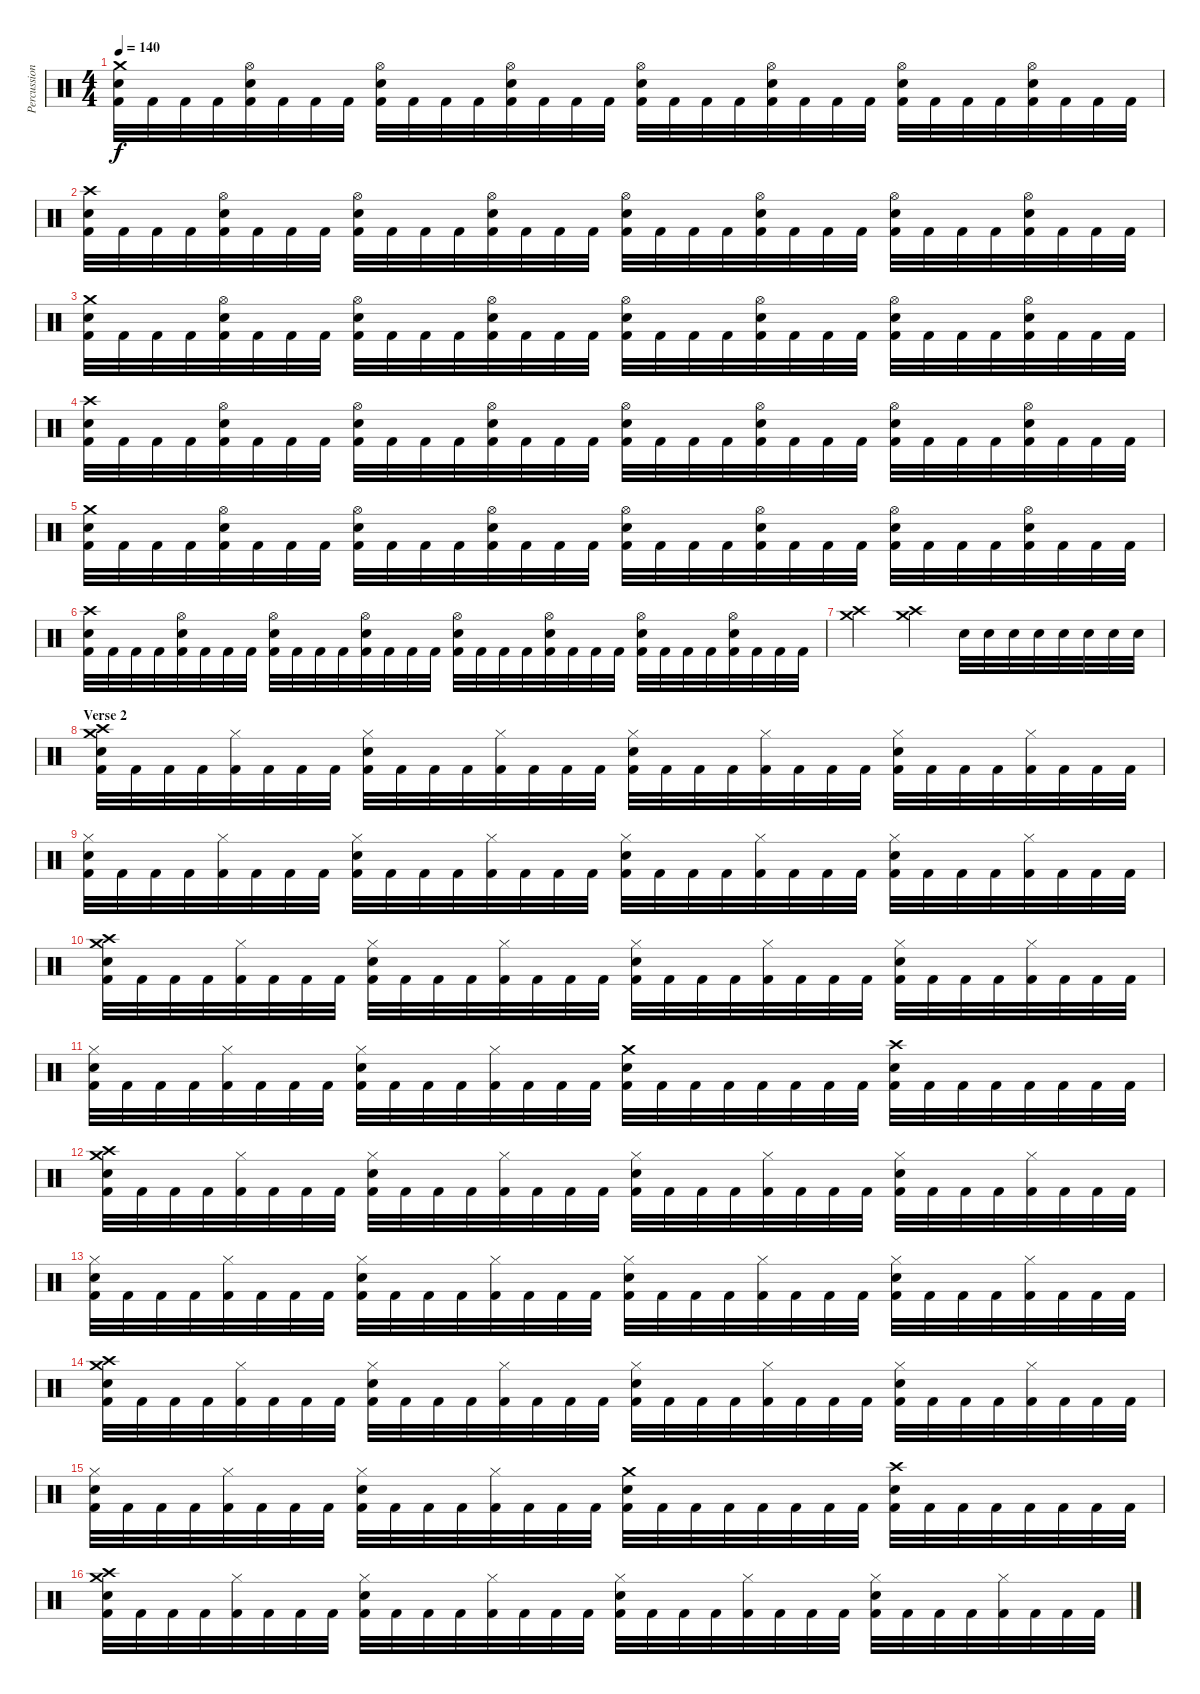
\track ("Percussion" "Percussion") {instrument percussion}
\staff {score}
\articulation defaults
\ts (4 4)
\tempo 140
\clef neutral
\ks c
("Crash medium (hit)" "Electric Snare (hit)" "Kick (hit) 2").32{dy f} "Kick (hit) 2".32 "Kick (hit) 2".32 "Kick (hit) 2".32 ("Hi-Hat (open)" "Electric Snare (hit)" "Kick (hit) 2").32 "Kick (hit) 2".32 "Kick (hit) 2".32 "Kick (hit) 2".32 ("Hi-Hat (open)" "Electric Snare (hit)" "Kick (hit) 2").32 "Kick (hit) 2".32 "Kick (hit) 2".32 "Kick (hit) 2".32 ("Hi-Hat (open)" "Electric Snare (hit)" "Kick (hit) 2").32 "Kick (hit) 2".32 "Kick (hit) 2".32 "Kick (hit) 2".32 ("Hi-Hat (open)" "Electric Snare (hit)" "Kick (hit) 2").32 "Kick (hit) 2".32 "Kick (hit) 2".32 "Kick (hit) 2".32 ("Hi-Hat (open)" "Electric Snare (hit)" "Kick (hit) 2").32 "Kick (hit) 2".32 "Kick (hit) 2".32 "Kick (hit) 2".32 ("Hi-Hat (open)" "Electric Snare (hit)" "Kick (hit) 2").32 "Kick (hit) 2".32 "Kick (hit) 2".32 "Kick (hit) 2".32 ("Hi-Hat (open)" "Electric Snare (hit)" "Kick (hit) 2").32 "Kick (hit) 2".32 "Kick (hit) 2".32 "Kick (hit) 2".32 |
("Crash high (hit)" "Electric Snare (hit)" "Kick (hit) 2").32 "Kick (hit) 2".32 "Kick (hit) 2".32 "Kick (hit) 2".32 ("Hi-Hat (open)" "Electric Snare (hit)" "Kick (hit) 2").32 "Kick (hit) 2".32 "Kick (hit) 2".32 "Kick (hit) 2".32 ("Hi-Hat (open)" "Electric Snare (hit)" "Kick (hit) 2").32 "Kick (hit) 2".32 "Kick (hit) 2".32 "Kick (hit) 2".32 ("Hi-Hat (open)" "Electric Snare (hit)" "Kick (hit) 2").32 "Kick (hit) 2".32 "Kick (hit) 2".32 "Kick (hit) 2".32 ("Hi-Hat (open)" "Electric Snare (hit)" "Kick (hit) 2").32 "Kick (hit) 2".32 "Kick (hit) 2".32 "Kick (hit) 2".32 ("Hi-Hat (open)" "Electric Snare (hit)" "Kick (hit) 2").32 "Kick (hit) 2".32 "Kick (hit) 2".32 "Kick (hit) 2".32 ("Hi-Hat (open)" "Electric Snare (hit)" "Kick (hit) 2").32 "Kick (hit) 2".32 "Kick (hit) 2".32 "Kick (hit) 2".32 ("Hi-Hat (open)" "Electric Snare (hit)" "Kick (hit) 2").32 "Kick (hit) 2".32 "Kick (hit) 2".32 "Kick (hit) 2".32 |
("Crash medium (hit)" "Electric Snare (hit)" "Kick (hit) 2").32 "Kick (hit) 2".32 "Kick (hit) 2".32 "Kick (hit) 2".32 ("Hi-Hat (open)" "Electric Snare (hit)" "Kick (hit) 2").32 "Kick (hit) 2".32 "Kick (hit) 2".32 "Kick (hit) 2".32 ("Hi-Hat (open)" "Electric Snare (hit)" "Kick (hit) 2").32 "Kick (hit) 2".32 "Kick (hit) 2".32 "Kick (hit) 2".32 ("Hi-Hat (open)" "Electric Snare (hit)" "Kick (hit) 2").32 "Kick (hit) 2".32 "Kick (hit) 2".32 "Kick (hit) 2".32 ("Hi-Hat (open)" "Electric Snare (hit)" "Kick (hit) 2").32 "Kick (hit) 2".32 "Kick (hit) 2".32 "Kick (hit) 2".32 ("Hi-Hat (open)" "Electric Snare (hit)" "Kick (hit) 2").32 "Kick (hit) 2".32 "Kick (hit) 2".32 "Kick (hit) 2".32 ("Hi-Hat (open)" "Electric Snare (hit)" "Kick (hit) 2").32 "Kick (hit) 2".32 "Kick (hit) 2".32 "Kick (hit) 2".32 ("Hi-Hat (open)" "Electric Snare (hit)" "Kick (hit) 2").32 "Kick (hit) 2".32 "Kick (hit) 2".32 "Kick (hit) 2".32 |
("Crash high (hit)" "Electric Snare (hit)" "Kick (hit) 2").32 "Kick (hit) 2".32 "Kick (hit) 2".32 "Kick (hit) 2".32 ("Hi-Hat (open)" "Electric Snare (hit)" "Kick (hit) 2").32 "Kick (hit) 2".32 "Kick (hit) 2".32 "Kick (hit) 2".32 ("Hi-Hat (open)" "Electric Snare (hit)" "Kick (hit) 2").32 "Kick (hit) 2".32 "Kick (hit) 2".32 "Kick (hit) 2".32 ("Hi-Hat (open)" "Electric Snare (hit)" "Kick (hit) 2").32 "Kick (hit) 2".32 "Kick (hit) 2".32 "Kick (hit) 2".32 ("Hi-Hat (open)" "Electric Snare (hit)" "Kick (hit) 2").32 "Kick (hit) 2".32 "Kick (hit) 2".32 "Kick (hit) 2".32 ("Hi-Hat (open)" "Electric Snare (hit)" "Kick (hit) 2").32 "Kick (hit) 2".32 "Kick (hit) 2".32 "Kick (hit) 2".32 ("Hi-Hat (open)" "Electric Snare (hit)" "Kick (hit) 2").32 "Kick (hit) 2".32 "Kick (hit) 2".32 "Kick (hit) 2".32 ("Hi-Hat (open)" "Electric Snare (hit)" "Kick (hit) 2").32 "Kick (hit) 2".32 "Kick (hit) 2".32 "Kick (hit) 2".32 |
("Crash medium (hit)" "Electric Snare (hit)" "Kick (hit) 2").32 "Kick (hit) 2".32 "Kick (hit) 2".32 "Kick (hit) 2".32 ("Hi-Hat (open)" "Electric Snare (hit)" "Kick (hit) 2").32 "Kick (hit) 2".32 "Kick (hit) 2".32 "Kick (hit) 2".32 ("Hi-Hat (open)" "Electric Snare (hit)" "Kick (hit) 2").32 "Kick (hit) 2".32 "Kick (hit) 2".32 "Kick (hit) 2".32 ("Hi-Hat (open)" "Electric Snare (hit)" "Kick (hit) 2").32 "Kick (hit) 2".32 "Kick (hit) 2".32 "Kick (hit) 2".32 ("Hi-Hat (open)" "Electric Snare (hit)" "Kick (hit) 2").32 "Kick (hit) 2".32 "Kick (hit) 2".32 "Kick (hit) 2".32 ("Hi-Hat (open)" "Electric Snare (hit)" "Kick (hit) 2").32 "Kick (hit) 2".32 "Kick (hit) 2".32 "Kick (hit) 2".32 ("Hi-Hat (open)" "Electric Snare (hit)" "Kick (hit) 2").32 "Kick (hit) 2".32 "Kick (hit) 2".32 "Kick (hit) 2".32 ("Hi-Hat (open)" "Electric Snare (hit)" "Kick (hit) 2").32 "Kick (hit) 2".32 "Kick (hit) 2".32 "Kick (hit) 2".32 |
("Crash high (hit)" "Electric Snare (hit)" "Kick (hit) 2").32 "Kick (hit) 2".32 "Kick (hit) 2".32 "Kick (hit) 2".32 ("Hi-Hat (open)" "Electric Snare (hit)" "Kick (hit) 2").32 "Kick (hit) 2".32 "Kick (hit) 2".32 "Kick (hit) 2".32 ("Hi-Hat (open)" "Electric Snare (hit)" "Kick (hit) 2").32 "Kick (hit) 2".32 "Kick (hit) 2".32 "Kick (hit) 2".32 ("Hi-Hat (open)" "Electric Snare (hit)" "Kick (hit) 2").32 "Kick (hit) 2".32 "Kick (hit) 2".32 "Kick (hit) 2".32 ("Hi-Hat (open)" "Electric Snare (hit)" "Kick (hit) 2").32 "Kick (hit) 2".32 "Kick (hit) 2".32 "Kick (hit) 2".32 ("Hi-Hat (open)" "Electric Snare (hit)" "Kick (hit) 2").32 "Kick (hit) 2".32 "Kick (hit) 2".32 "Kick (hit) 2".32 ("Hi-Hat (open)" "Electric Snare (hit)" "Kick (hit) 2").32 "Kick (hit) 2".32 "Kick (hit) 2".32 "Kick (hit) 2".32 ("Hi-Hat (open)" "Electric Snare (hit)" "Kick (hit) 2").32 "Kick (hit) 2".32 "Kick (hit) 2".32 "Kick (hit) 2".32 |
("Crash medium (hit)" "Crash high (hit)").2 ("Crash medium (hit)" "Crash high (hit)").4 "Electric Snare (hit)".32 "Electric Snare (hit)".32 "Electric Snare (hit)".32 "Electric Snare (hit)".32 "Electric Snare (hit)".32 "Electric Snare (hit)".32 "Electric Snare (hit)".32 "Electric Snare (hit)".32 |
\section ("" "Verse 2")
("Crash medium (hit)" "Crash high (hit)" "Electric Snare (hit)" "Kick (hit) 2").32 "Kick (hit) 2".32 "Kick (hit) 2".32 "Kick (hit) 2".32 ("Hi-Hat (closed)" "Kick (hit) 2").32 "Kick (hit) 2".32 "Kick (hit) 2".32 "Kick (hit) 2".32 ("Hi-Hat (closed)" "Electric Snare (hit)" "Kick (hit) 2").32 "Kick (hit) 2".32 "Kick (hit) 2".32 "Kick (hit) 2".32 ("Hi-Hat (closed)" "Kick (hit) 2").32 "Kick (hit) 2".32 "Kick (hit) 2".32 "Kick (hit) 2".32 ("Hi-Hat (closed)" "Electric Snare (hit)" "Kick (hit) 2").32 "Kick (hit) 2".32 "Kick (hit) 2".32 "Kick (hit) 2".32 ("Hi-Hat (closed)" "Kick (hit) 2").32 "Kick (hit) 2".32 "Kick (hit) 2".32 "Kick (hit) 2".32 ("Hi-Hat (closed)" "Electric Snare (hit)" "Kick (hit) 2").32 "Kick (hit) 2".32 "Kick (hit) 2".32 "Kick (hit) 2".32 ("Hi-Hat (closed)" "Kick (hit) 2").32 "Kick (hit) 2".32 "Kick (hit) 2".32 "Kick (hit) 2".32 |
("Hi-Hat (closed)" "Electric Snare (hit)" "Kick (hit) 2").32 "Kick (hit) 2".32 "Kick (hit) 2".32 "Kick (hit) 2".32 ("Hi-Hat (closed)" "Kick (hit) 2").32 "Kick (hit) 2".32 "Kick (hit) 2".32 "Kick (hit) 2".32 ("Hi-Hat (closed)" "Electric Snare (hit)" "Kick (hit) 2").32 "Kick (hit) 2".32 "Kick (hit) 2".32 "Kick (hit) 2".32 ("Hi-Hat (closed)" "Kick (hit) 2").32 "Kick (hit) 2".32 "Kick (hit) 2".32 "Kick (hit) 2".32 ("Hi-Hat (closed)" "Electric Snare (hit)" "Kick (hit) 2").32 "Kick (hit) 2".32 "Kick (hit) 2".32 "Kick (hit) 2".32 ("Hi-Hat (closed)" "Kick (hit) 2").32 "Kick (hit) 2".32 "Kick (hit) 2".32 "Kick (hit) 2".32 ("Hi-Hat (closed)" "Electric Snare (hit)" "Kick (hit) 2").32 "Kick (hit) 2".32 "Kick (hit) 2".32 "Kick (hit) 2".32 ("Hi-Hat (closed)" "Kick (hit) 2").32 "Kick (hit) 2".32 "Kick (hit) 2".32 "Kick (hit) 2".32 |
("Crash medium (hit)" "Crash high (hit)" "Electric Snare (hit)" "Kick (hit) 2").32 "Kick (hit) 2".32 "Kick (hit) 2".32 "Kick (hit) 2".32 ("Hi-Hat (closed)" "Kick (hit) 2").32 "Kick (hit) 2".32 "Kick (hit) 2".32 "Kick (hit) 2".32 ("Hi-Hat (closed)" "Electric Snare (hit)" "Kick (hit) 2").32 "Kick (hit) 2".32 "Kick (hit) 2".32 "Kick (hit) 2".32 ("Hi-Hat (closed)" "Kick (hit) 2").32 "Kick (hit) 2".32 "Kick (hit) 2".32 "Kick (hit) 2".32 ("Hi-Hat (closed)" "Electric Snare (hit)" "Kick (hit) 2").32 "Kick (hit) 2".32 "Kick (hit) 2".32 "Kick (hit) 2".32 ("Hi-Hat (closed)" "Kick (hit) 2").32 "Kick (hit) 2".32 "Kick (hit) 2".32 "Kick (hit) 2".32 ("Hi-Hat (closed)" "Electric Snare (hit)" "Kick (hit) 2").32 "Kick (hit) 2".32 "Kick (hit) 2".32 "Kick (hit) 2".32 ("Hi-Hat (closed)" "Kick (hit) 2").32 "Kick (hit) 2".32 "Kick (hit) 2".32 "Kick (hit) 2".32 |
("Hi-Hat (closed)" "Electric Snare (hit)" "Kick (hit) 2").32 "Kick (hit) 2".32 "Kick (hit) 2".32 "Kick (hit) 2".32 ("Hi-Hat (closed)" "Kick (hit) 2").32 "Kick (hit) 2".32 "Kick (hit) 2".32 "Kick (hit) 2".32 ("Hi-Hat (closed)" "Electric Snare (hit)" "Kick (hit) 2").32 "Kick (hit) 2".32 "Kick (hit) 2".32 "Kick (hit) 2".32 ("Hi-Hat (closed)" "Kick (hit) 2").32 "Kick (hit) 2".32 "Kick (hit) 2".32 "Kick (hit) 2".32 ("Crash medium (hit)" "Electric Snare (hit)" "Kick (hit) 2").32 "Kick (hit) 2".32 "Kick (hit) 2".32 "Kick (hit) 2".32 "Kick (hit) 2".32 "Kick (hit) 2".32 "Kick (hit) 2".32 "Kick (hit) 2".32 ("Crash high (hit)" "Electric Snare (hit)" "Kick (hit) 2").32 "Kick (hit) 2".32 "Kick (hit) 2".32 "Kick (hit) 2".32 "Kick (hit) 2".32 "Kick (hit) 2".32 "Kick (hit) 2".32 "Kick (hit) 2".32 |
("Crash medium (hit)" "Crash high (hit)" "Electric Snare (hit)" "Kick (hit) 2").32 "Kick (hit) 2".32 "Kick (hit) 2".32 "Kick (hit) 2".32 ("Hi-Hat (closed)" "Kick (hit) 2").32 "Kick (hit) 2".32 "Kick (hit) 2".32 "Kick (hit) 2".32 ("Hi-Hat (closed)" "Electric Snare (hit)" "Kick (hit) 2").32 "Kick (hit) 2".32 "Kick (hit) 2".32 "Kick (hit) 2".32 ("Hi-Hat (closed)" "Kick (hit) 2").32 "Kick (hit) 2".32 "Kick (hit) 2".32 "Kick (hit) 2".32 ("Hi-Hat (closed)" "Electric Snare (hit)" "Kick (hit) 2").32 "Kick (hit) 2".32 "Kick (hit) 2".32 "Kick (hit) 2".32 ("Hi-Hat (closed)" "Kick (hit) 2").32 "Kick (hit) 2".32 "Kick (hit) 2".32 "Kick (hit) 2".32 ("Hi-Hat (closed)" "Electric Snare (hit)" "Kick (hit) 2").32 "Kick (hit) 2".32 "Kick (hit) 2".32 "Kick (hit) 2".32 ("Hi-Hat (closed)" "Kick (hit) 2").32 "Kick (hit) 2".32 "Kick (hit) 2".32 "Kick (hit) 2".32 |
("Hi-Hat (closed)" "Electric Snare (hit)" "Kick (hit) 2").32 "Kick (hit) 2".32 "Kick (hit) 2".32 "Kick (hit) 2".32 ("Hi-Hat (closed)" "Kick (hit) 2").32 "Kick (hit) 2".32 "Kick (hit) 2".32 "Kick (hit) 2".32 ("Hi-Hat (closed)" "Electric Snare (hit)" "Kick (hit) 2").32 "Kick (hit) 2".32 "Kick (hit) 2".32 "Kick (hit) 2".32 ("Hi-Hat (closed)" "Kick (hit) 2").32 "Kick (hit) 2".32 "Kick (hit) 2".32 "Kick (hit) 2".32 ("Hi-Hat (closed)" "Electric Snare (hit)" "Kick (hit) 2").32 "Kick (hit) 2".32 "Kick (hit) 2".32 "Kick (hit) 2".32 ("Hi-Hat (closed)" "Kick (hit) 2").32 "Kick (hit) 2".32 "Kick (hit) 2".32 "Kick (hit) 2".32 ("Hi-Hat (closed)" "Electric Snare (hit)" "Kick (hit) 2").32 "Kick (hit) 2".32 "Kick (hit) 2".32 "Kick (hit) 2".32 ("Hi-Hat (closed)" "Kick (hit) 2").32 "Kick (hit) 2".32 "Kick (hit) 2".32 "Kick (hit) 2".32 |
("Crash medium (hit)" "Crash high (hit)" "Electric Snare (hit)" "Kick (hit) 2").32 "Kick (hit) 2".32 "Kick (hit) 2".32 "Kick (hit) 2".32 ("Hi-Hat (closed)" "Kick (hit) 2").32 "Kick (hit) 2".32 "Kick (hit) 2".32 "Kick (hit) 2".32 ("Hi-Hat (closed)" "Electric Snare (hit)" "Kick (hit) 2").32 "Kick (hit) 2".32 "Kick (hit) 2".32 "Kick (hit) 2".32 ("Hi-Hat (closed)" "Kick (hit) 2").32 "Kick (hit) 2".32 "Kick (hit) 2".32 "Kick (hit) 2".32 ("Hi-Hat (closed)" "Electric Snare (hit)" "Kick (hit) 2").32 "Kick (hit) 2".32 "Kick (hit) 2".32 "Kick (hit) 2".32 ("Hi-Hat (closed)" "Kick (hit) 2").32 "Kick (hit) 2".32 "Kick (hit) 2".32 "Kick (hit) 2".32 ("Hi-Hat (closed)" "Electric Snare (hit)" "Kick (hit) 2").32 "Kick (hit) 2".32 "Kick (hit) 2".32 "Kick (hit) 2".32 ("Hi-Hat (closed)" "Kick (hit) 2").32 "Kick (hit) 2".32 "Kick (hit) 2".32 "Kick (hit) 2".32 |
("Hi-Hat (closed)" "Electric Snare (hit)" "Kick (hit) 2").32 "Kick (hit) 2".32 "Kick (hit) 2".32 "Kick (hit) 2".32 ("Hi-Hat (closed)" "Kick (hit) 2").32 "Kick (hit) 2".32 "Kick (hit) 2".32 "Kick (hit) 2".32 ("Hi-Hat (closed)" "Electric Snare (hit)" "Kick (hit) 2").32 "Kick (hit) 2".32 "Kick (hit) 2".32 "Kick (hit) 2".32 ("Hi-Hat (closed)" "Kick (hit) 2").32 "Kick (hit) 2".32 "Kick (hit) 2".32 "Kick (hit) 2".32 ("Crash medium (hit)" "Electric Snare (hit)" "Kick (hit) 2").32 "Kick (hit) 2".32 "Kick (hit) 2".32 "Kick (hit) 2".32 "Kick (hit) 2".32 "Kick (hit) 2".32 "Kick (hit) 2".32 "Kick (hit) 2".32 ("Crash high (hit)" "Electric Snare (hit)" "Kick (hit) 2").32 "Kick (hit) 2".32 "Kick (hit) 2".32 "Kick (hit) 2".32 "Kick (hit) 2".32 "Kick (hit) 2".32 "Kick (hit) 2".32 "Kick (hit) 2".32 |
("Crash medium (hit)" "Crash high (hit)" "Electric Snare (hit)" "Kick (hit) 2").32 "Kick (hit) 2".32 "Kick (hit) 2".32 "Kick (hit) 2".32 ("Hi-Hat (closed)" "Kick (hit) 2").32 "Kick (hit) 2".32 "Kick (hit) 2".32 "Kick (hit) 2".32 ("Hi-Hat (closed)" "Electric Snare (hit)" "Kick (hit) 2").32 "Kick (hit) 2".32 "Kick (hit) 2".32 "Kick (hit) 2".32 ("Hi-Hat (closed)" "Kick (hit) 2").32 "Kick (hit) 2".32 "Kick (hit) 2".32 "Kick (hit) 2".32 ("Hi-Hat (closed)" "Electric Snare (hit)" "Kick (hit) 2").32 "Kick (hit) 2".32 "Kick (hit) 2".32 "Kick (hit) 2".32 ("Hi-Hat (closed)" "Kick (hit) 2").32 "Kick (hit) 2".32 "Kick (hit) 2".32 "Kick (hit) 2".32 ("Hi-Hat (closed)" "Electric Snare (hit)" "Kick (hit) 2").32 "Kick (hit) 2".32 "Kick (hit) 2".32 "Kick (hit) 2".32 ("Hi-Hat (closed)" "Kick (hit) 2").32 "Kick (hit) 2".32 "Kick (hit) 2".32 "Kick (hit) 2".32
